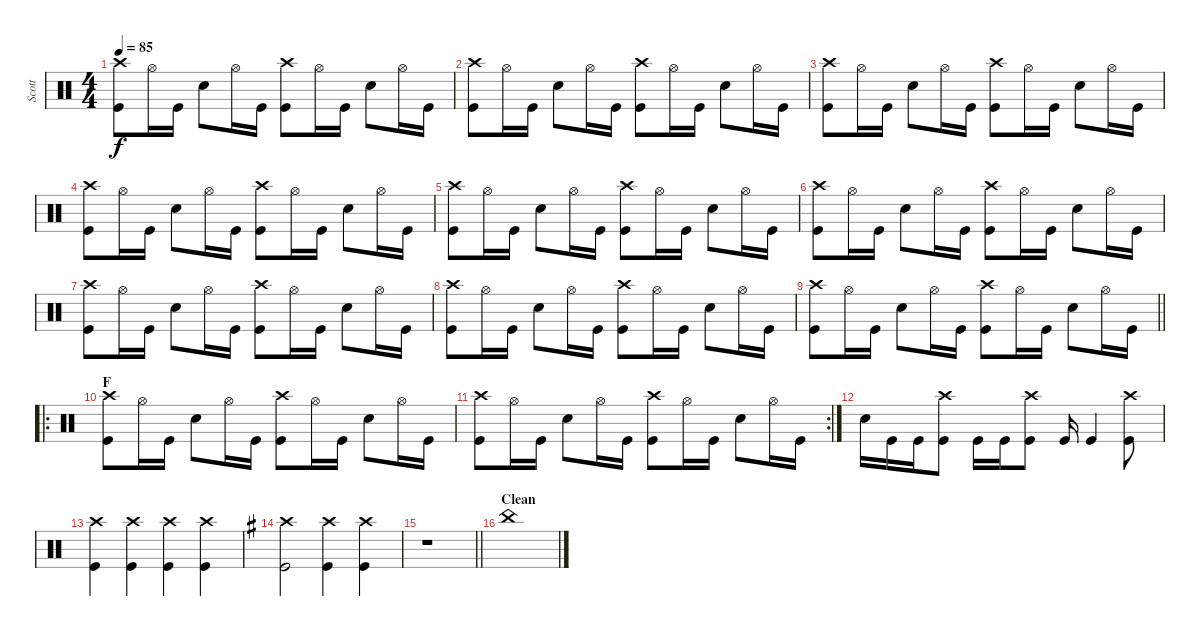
\track ("Scott" "Scott") {instrument percussion}
\staff {score}
\articulation defaults
\ts (4 4)
\tempo 85
\clef neutral
\ks c
("Kick (hit)" "Crash high (hit)").8{dy f} "Hi-Hat (open)".16 "Kick (hit)".16 "Snare (hit) 2".8 "Hi-Hat (open)".16 "Kick (hit)".16 ("Kick (hit)" "Crash high (hit)").8 "Hi-Hat (open)".16 "Kick (hit)".16 "Snare (hit) 2".8 "Hi-Hat (open)".16 "Kick (hit)".16 |
("Kick (hit)" "Crash high (hit)").8 "Hi-Hat (open)".16 "Kick (hit)".16 "Snare (hit) 2".8 "Hi-Hat (open)".16 "Kick (hit)".16 ("Kick (hit)" "Crash high (hit)").8 "Hi-Hat (open)".16 "Kick (hit)".16 "Snare (hit) 2".8 "Hi-Hat (open)".16 "Kick (hit)".16 |
("Kick (hit)" "Crash high (hit)").8 "Hi-Hat (open)".16 "Kick (hit)".16 "Snare (hit) 2".8 "Hi-Hat (open)".16 "Kick (hit)".16 ("Kick (hit)" "Crash high (hit)").8 "Hi-Hat (open)".16 "Kick (hit)".16 "Snare (hit) 2".8 "Hi-Hat (open)".16 "Kick (hit)".16 |
("Kick (hit)" "Crash high (hit)").8 "Hi-Hat (open)".16 "Kick (hit)".16 "Snare (hit) 2".8 "Hi-Hat (open)".16 "Kick (hit)".16 ("Kick (hit)" "Crash high (hit)").8 "Hi-Hat (open)".16 "Kick (hit)".16 "Snare (hit) 2".8 "Hi-Hat (open)".16 "Kick (hit)".16 |
("Kick (hit)" "Crash high (hit)").8 "Hi-Hat (open)".16 "Kick (hit)".16 "Snare (hit) 2".8 "Hi-Hat (open)".16 "Kick (hit)".16 ("Kick (hit)" "Crash high (hit)").8 "Hi-Hat (open)".16 "Kick (hit)".16 "Snare (hit) 2".8 "Hi-Hat (open)".16 "Kick (hit)".16 |
("Kick (hit)" "Crash high (hit)").8 "Hi-Hat (open)".16 "Kick (hit)".16 "Snare (hit) 2".8 "Hi-Hat (open)".16 "Kick (hit)".16 ("Kick (hit)" "Crash high (hit)").8 "Hi-Hat (open)".16 "Kick (hit)".16 "Snare (hit) 2".8 "Hi-Hat (open)".16 "Kick (hit)".16 |
("Kick (hit)" "Crash high (hit)").8 "Hi-Hat (open)".16 "Kick (hit)".16 "Snare (hit) 2".8 "Hi-Hat (open)".16 "Kick (hit)".16 ("Kick (hit)" "Crash high (hit)").8 "Hi-Hat (open)".16 "Kick (hit)".16 "Snare (hit) 2".8 "Hi-Hat (open)".16 "Kick (hit)".16 |
("Kick (hit)" "Crash high (hit)").8 "Hi-Hat (open)".16 "Kick (hit)".16 "Snare (hit) 2".8 "Hi-Hat (open)".16 "Kick (hit)".16 ("Kick (hit)" "Crash high (hit)").8 "Hi-Hat (open)".16 "Kick (hit)".16 "Snare (hit) 2".8 "Hi-Hat (open)".16 "Kick (hit)".16 |
\barLineRight lightlight
("Kick (hit)" "Crash high (hit)").8 "Hi-Hat (open)".16 "Kick (hit)".16 "Snare (hit) 2".8 "Hi-Hat (open)".16 "Kick (hit)".16 ("Kick (hit)" "Crash high (hit)").8 "Hi-Hat (open)".16 "Kick (hit)".16 "Snare (hit) 2".8 "Hi-Hat (open)".16 "Kick (hit)".16 |
\ro
\section ("" "F")
("Kick (hit)" "Crash high (hit)").8 "Hi-Hat (open)".16 "Kick (hit)".16 "Snare (hit) 2".8 "Hi-Hat (open)".16 "Kick (hit)".16 ("Kick (hit)" "Crash high (hit)").8 "Hi-Hat (open)".16 "Kick (hit)".16 "Snare (hit) 2".8 "Hi-Hat (open)".16 "Kick (hit)".16 |
\rc 2
("Kick (hit)" "Crash high (hit)").8 "Hi-Hat (open)".16 "Kick (hit)".16 "Snare (hit) 2".8 "Hi-Hat (open)".16 "Kick (hit)".16 ("Kick (hit)" "Crash high (hit)").8 "Hi-Hat (open)".16 "Kick (hit)".16 "Snare (hit) 2".8 "Hi-Hat (open)".16 "Kick (hit)".16 |
"Snare (hit) 2".16 "Kick (hit)".16 "Kick (hit)".16 ("Kick (hit)" "Crash high (hit)").8 "Kick (hit)".16 "Kick (hit)".16 ("Kick (hit)" "Crash high (hit)").8 "Kick (hit)".16 "Kick (hit)".4 ("Kick (hit)" "Crash high (hit)").8 |
("Kick (hit)" "Crash high (hit)").4 ("Kick (hit)" "Crash high (hit)").4 ("Kick (hit)" "Crash high (hit)").4 ("Kick (hit)" "Crash high (hit)").4 |
\ks g
("Kick (hit)" "Crash high (hit)").2 ("Kick (hit)" "Crash high (hit)").4 ("Kick (hit)" "Crash high (hit)").4 |
\barLineRight lightlight
r.1 |
\section ("" "Clean")
"China (hit)".1
